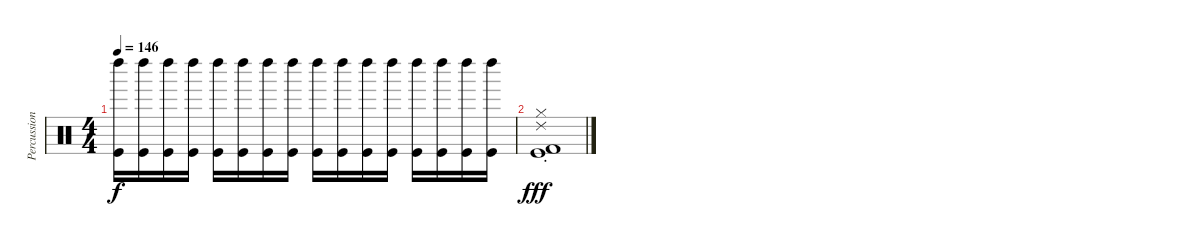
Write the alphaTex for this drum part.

\track ("Percussion" "Percussion") {instrument percussion}
\staff {score}
\articulation defaults
\ts (4 4)
\tempo 146
\clef neutral
\ks c
("Left Maraca (hit)" "Kick (hit)").16{dy f} ("Left Maraca (hit)" "Kick (hit)").16 ("Left Maraca (hit)" "Kick (hit)").16 ("Left Maraca (hit)" "Kick (hit)").16 ("Left Maraca (hit)" "Kick (hit)").16 ("Left Maraca (hit)" "Kick (hit)").16 ("Left Maraca (hit)" "Kick (hit)").16 ("Left Maraca (hit)" "Kick (hit)").16 ("Left Maraca (hit)" "Kick (hit)").16 ("Left Maraca (hit)" "Kick (hit)").16 ("Left Maraca (hit)" "Kick (hit)").16 ("Left Maraca (hit)" "Kick (hit)").16 ("Left Maraca (hit)" "Kick (hit)").16 ("Left Maraca (hit)" "Kick (hit)").16 ("Left Maraca (hit)" "Kick (hit)").16 ("Left Maraca (hit)" "Kick (hit)").16 |
("Hi-Hat (closed)" "Ride (choke) 2" "Kick (hit)" "Kick (hit) 2").1{dy fff}
